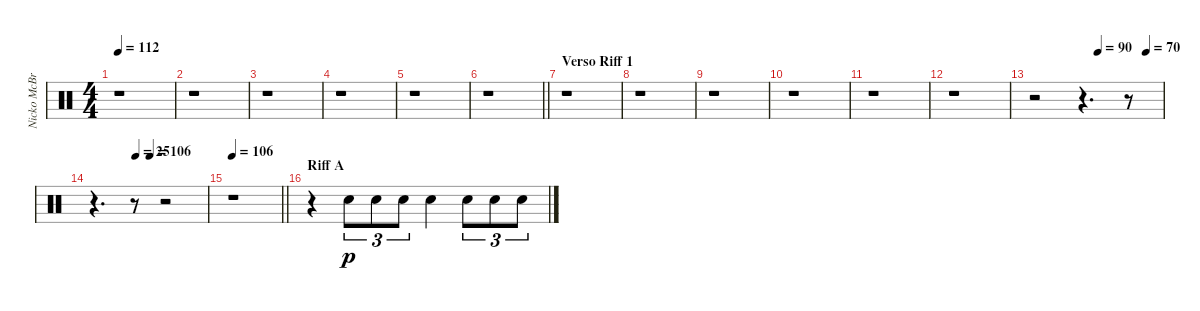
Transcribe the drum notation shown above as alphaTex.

\track ("Nicko McBrain" "Nicko McBr") {instrument percussion}
\staff {score}
\articulation defaults
\ts (4 4)
\tempo 112
\clef neutral
\ks c
r.1{dy p} |
r.1 |
r.1 |
r.1 |
r.1 |
\barLineRight lightlight
r.1 |
\section ("" "Verso Riff 1")
r.1 |
r.1 |
r.1 |
r.1 |
r.1 |
r.1 |
\tempo (90 0.5)
\tempo (70 0.875)
r.2 r.4{d} r.8 |
\tempo (25 0.375)
\tempo (106 0.5)
r.4{d} r.8 r.2 |
\tempo 106
\barLineRight lightlight
r.1 |
\section ("" "Riff A")
r.4{volume 11} "Snare (hit) 2".8{tu (3 2)} "Snare (hit) 2".8{tu (3 2)} "Snare (hit) 2".8{tu (3 2)} "Snare (hit) 2".4 "Snare (hit) 2".8{tu (3 2)} "Snare (hit) 2".8{tu (3 2)} "Snare (hit) 2".8{tu (3 2)}
